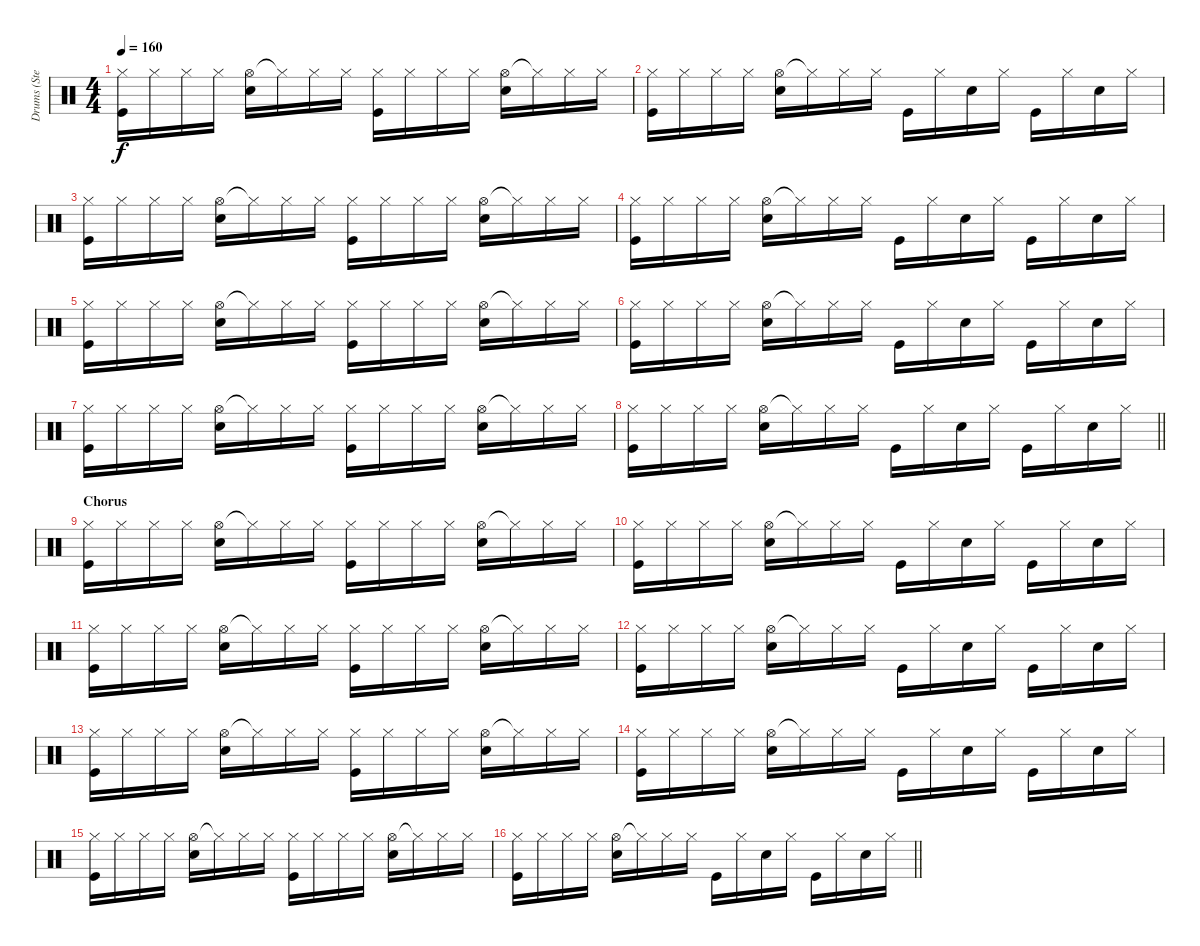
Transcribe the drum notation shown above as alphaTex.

\track ("Drums (Stephen Morris)" "Drums (Ste") {instrument percussion}
\staff {score}
\articulation defaults
\ts (4 4)
\tempo 160
\clef neutral
\ks c
("Hi-Hat (closed)" "Kick (hit)").16{dy f} "Hi-Hat (closed)".16 "Hi-Hat (closed)".16 "Hi-Hat (closed)".16 ("Hi-Hat (open)" "Electric Snare (hit)").16 "Hi-Hat (closed)"{t}.16 "Hi-Hat (closed)".16 "Hi-Hat (closed)".16 ("Hi-Hat (closed)" "Kick (hit)").16 "Hi-Hat (closed)".16 "Hi-Hat (closed)".16 "Hi-Hat (closed)".16 ("Hi-Hat (open)" "Electric Snare (hit)").16 "Hi-Hat (closed)"{t}.16 "Hi-Hat (closed)".16 "Hi-Hat (closed)".16 |
("Hi-Hat (closed)" "Kick (hit)").16 "Hi-Hat (closed)".16 "Hi-Hat (closed)".16 "Hi-Hat (closed)".16 ("Hi-Hat (open)" "Electric Snare (hit)").16 "Hi-Hat (closed)"{t}.16 "Hi-Hat (closed)".16 "Hi-Hat (closed)".16 "Kick (hit)".16 "Hi-Hat (closed)".16 "Electric Snare (hit)".16 "Hi-Hat (closed)".16 "Kick (hit)".16 "Hi-Hat (closed)".16 "Electric Snare (hit)".16 "Hi-Hat (closed)".16 |
("Hi-Hat (closed)" "Kick (hit)").16 "Hi-Hat (closed)".16 "Hi-Hat (closed)".16 "Hi-Hat (closed)".16 ("Hi-Hat (open)" "Electric Snare (hit)").16 "Hi-Hat (closed)"{t}.16 "Hi-Hat (closed)".16 "Hi-Hat (closed)".16 ("Hi-Hat (closed)" "Kick (hit)").16 "Hi-Hat (closed)".16 "Hi-Hat (closed)".16 "Hi-Hat (closed)".16 ("Hi-Hat (open)" "Electric Snare (hit)").16 "Hi-Hat (closed)"{t}.16 "Hi-Hat (closed)".16 "Hi-Hat (closed)".16 |
("Hi-Hat (closed)" "Kick (hit)").16 "Hi-Hat (closed)".16 "Hi-Hat (closed)".16 "Hi-Hat (closed)".16 ("Hi-Hat (open)" "Electric Snare (hit)").16 "Hi-Hat (closed)"{t}.16 "Hi-Hat (closed)".16 "Hi-Hat (closed)".16 "Kick (hit)".16 "Hi-Hat (closed)".16 "Electric Snare (hit)".16 "Hi-Hat (closed)".16 "Kick (hit)".16 "Hi-Hat (closed)".16 "Electric Snare (hit)".16 "Hi-Hat (closed)".16 |
("Hi-Hat (closed)" "Kick (hit)").16 "Hi-Hat (closed)".16 "Hi-Hat (closed)".16 "Hi-Hat (closed)".16 ("Hi-Hat (open)" "Electric Snare (hit)").16 "Hi-Hat (closed)"{t}.16 "Hi-Hat (closed)".16 "Hi-Hat (closed)".16 ("Hi-Hat (closed)" "Kick (hit)").16 "Hi-Hat (closed)".16 "Hi-Hat (closed)".16 "Hi-Hat (closed)".16 ("Hi-Hat (open)" "Electric Snare (hit)").16 "Hi-Hat (closed)"{t}.16 "Hi-Hat (closed)".16 "Hi-Hat (closed)".16 |
("Hi-Hat (closed)" "Kick (hit)").16 "Hi-Hat (closed)".16 "Hi-Hat (closed)".16 "Hi-Hat (closed)".16 ("Hi-Hat (open)" "Electric Snare (hit)").16 "Hi-Hat (closed)"{t}.16 "Hi-Hat (closed)".16 "Hi-Hat (closed)".16 "Kick (hit)".16 "Hi-Hat (closed)".16 "Electric Snare (hit)".16 "Hi-Hat (closed)".16 "Kick (hit)".16 "Hi-Hat (closed)".16 "Electric Snare (hit)".16 "Hi-Hat (closed)".16 |
("Hi-Hat (closed)" "Kick (hit)").16 "Hi-Hat (closed)".16 "Hi-Hat (closed)".16 "Hi-Hat (closed)".16 ("Hi-Hat (open)" "Electric Snare (hit)").16 "Hi-Hat (closed)"{t}.16 "Hi-Hat (closed)".16 "Hi-Hat (closed)".16 ("Hi-Hat (closed)" "Kick (hit)").16 "Hi-Hat (closed)".16 "Hi-Hat (closed)".16 "Hi-Hat (closed)".16 ("Hi-Hat (open)" "Electric Snare (hit)").16 "Hi-Hat (closed)"{t}.16 "Hi-Hat (closed)".16 "Hi-Hat (closed)".16 |
\barLineRight lightlight
("Hi-Hat (closed)" "Kick (hit)").16 "Hi-Hat (closed)".16 "Hi-Hat (closed)".16 "Hi-Hat (closed)".16 ("Hi-Hat (open)" "Electric Snare (hit)").16 "Hi-Hat (closed)"{t}.16 "Hi-Hat (closed)".16 "Hi-Hat (closed)".16 "Kick (hit)".16 "Hi-Hat (closed)".16 "Electric Snare (hit)".16 "Hi-Hat (closed)".16 "Kick (hit)".16 "Hi-Hat (closed)".16 "Electric Snare (hit)".16 "Hi-Hat (closed)".16 |
\section ("" "Chorus")
("Hi-Hat (closed)" "Kick (hit)").16 "Hi-Hat (closed)".16 "Hi-Hat (closed)".16 "Hi-Hat (closed)".16 ("Hi-Hat (open)" "Electric Snare (hit)").16 "Hi-Hat (closed)"{t}.16 "Hi-Hat (closed)".16 "Hi-Hat (closed)".16 ("Hi-Hat (closed)" "Kick (hit)").16 "Hi-Hat (closed)".16 "Hi-Hat (closed)".16 "Hi-Hat (closed)".16 ("Hi-Hat (open)" "Electric Snare (hit)").16 "Hi-Hat (closed)"{t}.16 "Hi-Hat (closed)".16 "Hi-Hat (closed)".16 |
("Hi-Hat (closed)" "Kick (hit)").16 "Hi-Hat (closed)".16 "Hi-Hat (closed)".16 "Hi-Hat (closed)".16 ("Hi-Hat (open)" "Electric Snare (hit)").16 "Hi-Hat (closed)"{t}.16 "Hi-Hat (closed)".16 "Hi-Hat (closed)".16 "Kick (hit)".16 "Hi-Hat (closed)".16 "Electric Snare (hit)".16 "Hi-Hat (closed)".16 "Kick (hit)".16 "Hi-Hat (closed)".16 "Electric Snare (hit)".16 "Hi-Hat (closed)".16 |
("Hi-Hat (closed)" "Kick (hit)").16 "Hi-Hat (closed)".16 "Hi-Hat (closed)".16 "Hi-Hat (closed)".16 ("Hi-Hat (open)" "Electric Snare (hit)").16 "Hi-Hat (closed)"{t}.16 "Hi-Hat (closed)".16 "Hi-Hat (closed)".16 ("Hi-Hat (closed)" "Kick (hit)").16 "Hi-Hat (closed)".16 "Hi-Hat (closed)".16 "Hi-Hat (closed)".16 ("Hi-Hat (open)" "Electric Snare (hit)").16 "Hi-Hat (closed)"{t}.16 "Hi-Hat (closed)".16 "Hi-Hat (closed)".16 |
("Hi-Hat (closed)" "Kick (hit)").16 "Hi-Hat (closed)".16 "Hi-Hat (closed)".16 "Hi-Hat (closed)".16 ("Hi-Hat (open)" "Electric Snare (hit)").16 "Hi-Hat (closed)"{t}.16 "Hi-Hat (closed)".16 "Hi-Hat (closed)".16 "Kick (hit)".16 "Hi-Hat (closed)".16 "Electric Snare (hit)".16 "Hi-Hat (closed)".16 "Kick (hit)".16 "Hi-Hat (closed)".16 "Electric Snare (hit)".16 "Hi-Hat (closed)".16 |
("Hi-Hat (closed)" "Kick (hit)").16 "Hi-Hat (closed)".16 "Hi-Hat (closed)".16 "Hi-Hat (closed)".16 ("Hi-Hat (open)" "Electric Snare (hit)").16 "Hi-Hat (closed)"{t}.16 "Hi-Hat (closed)".16 "Hi-Hat (closed)".16 ("Hi-Hat (closed)" "Kick (hit)").16 "Hi-Hat (closed)".16 "Hi-Hat (closed)".16 "Hi-Hat (closed)".16 ("Hi-Hat (open)" "Electric Snare (hit)").16 "Hi-Hat (closed)"{t}.16 "Hi-Hat (closed)".16 "Hi-Hat (closed)".16 |
("Hi-Hat (closed)" "Kick (hit)").16 "Hi-Hat (closed)".16 "Hi-Hat (closed)".16 "Hi-Hat (closed)".16 ("Hi-Hat (open)" "Electric Snare (hit)").16 "Hi-Hat (closed)"{t}.16 "Hi-Hat (closed)".16 "Hi-Hat (closed)".16 "Kick (hit)".16 "Hi-Hat (closed)".16 "Electric Snare (hit)".16 "Hi-Hat (closed)".16 "Kick (hit)".16 "Hi-Hat (closed)".16 "Electric Snare (hit)".16 "Hi-Hat (closed)".16 |
("Hi-Hat (closed)" "Kick (hit)").16 "Hi-Hat (closed)".16 "Hi-Hat (closed)".16 "Hi-Hat (closed)".16 ("Hi-Hat (open)" "Electric Snare (hit)").16 "Hi-Hat (closed)"{t}.16 "Hi-Hat (closed)".16 "Hi-Hat (closed)".16 ("Hi-Hat (closed)" "Kick (hit)").16 "Hi-Hat (closed)".16 "Hi-Hat (closed)".16 "Hi-Hat (closed)".16 ("Hi-Hat (open)" "Electric Snare (hit)").16 "Hi-Hat (closed)"{t}.16 "Hi-Hat (closed)".16 "Hi-Hat (closed)".16 |
\barLineRight lightlight
("Hi-Hat (closed)" "Kick (hit)").16 "Hi-Hat (closed)".16 "Hi-Hat (closed)".16 "Hi-Hat (closed)".16 ("Hi-Hat (open)" "Electric Snare (hit)").16 "Hi-Hat (closed)"{t}.16 "Hi-Hat (closed)".16 "Hi-Hat (closed)".16 "Kick (hit)".16 "Hi-Hat (closed)".16 "Electric Snare (hit)".16 "Hi-Hat (closed)".16 "Kick (hit)".16 "Hi-Hat (closed)".16 "Electric Snare (hit)".16 "Hi-Hat (closed)".16
